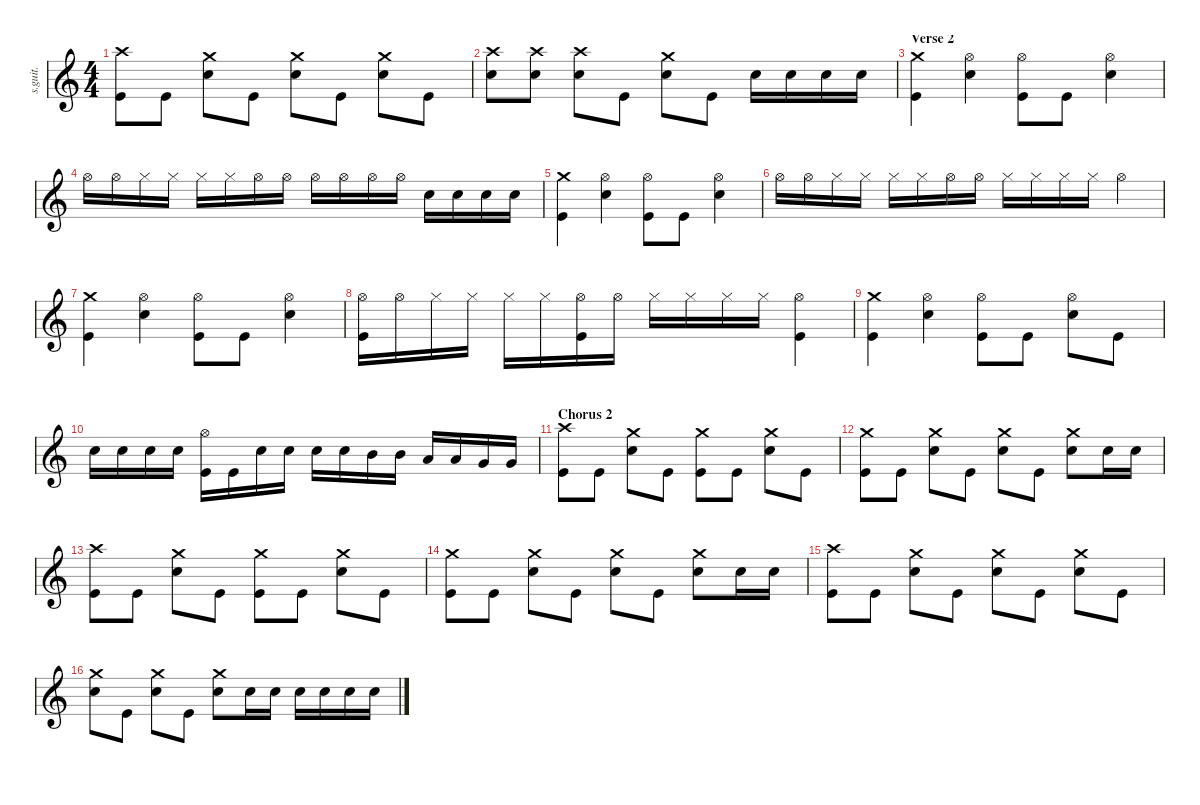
\defaultSystemsLayout 4
\hideDynamics
\bracketExtendMode nobrackets
\track ("Joey Jordison" "s.guit.") {instrument percussion}
\staff {score}
\articulation defaults
\ts (4 4)
\tempo (210 hide)
\clef g2
\ks c
("Crash high (hit)" "Kick (hit)").8{lyrics (0 "") lyrics (1 "") lyrics (2 "") lyrics (3 "") lyrics (4 "") dy ff} "Kick (hit)".8{lyrics (0 "") lyrics (1 "") lyrics (2 "") lyrics (3 "") lyrics (4 "")} ("Crash medium (hit)" "Snare (hit) 2").8{lyrics (0 "") lyrics (1 "") lyrics (2 "") lyrics (3 "") lyrics (4 "")} "Kick (hit)".8{lyrics (0 "") lyrics (1 "") lyrics (2 "") lyrics (3 "") lyrics (4 "")} ("Crash medium (hit)" "Snare (hit) 2").8{lyrics (0 "") lyrics (1 "") lyrics (2 "") lyrics (3 "") lyrics (4 "")} "Kick (hit)".8{lyrics (0 "") lyrics (1 "") lyrics (2 "") lyrics (3 "") lyrics (4 "")} ("Crash medium (hit)" "Snare (hit) 2").8{lyrics (0 "") lyrics (1 "") lyrics (2 "") lyrics (3 "") lyrics (4 "")} "Kick (hit)".8{lyrics (0 "") lyrics (1 "") lyrics (2 "") lyrics (3 "") lyrics (4 "")} |
("Crash high (hit)" "Snare (hit) 2").8{lyrics (0 "") lyrics (1 "") lyrics (2 "") lyrics (3 "") lyrics (4 "")} ("Crash high (hit)" "Snare (hit) 2").8{lyrics (0 "") lyrics (1 "") lyrics (2 "") lyrics (3 "") lyrics (4 "")} ("Crash high (hit)" "Snare (hit) 2").8{lyrics (0 "") lyrics (1 "") lyrics (2 "") lyrics (3 "") lyrics (4 "")} "Kick (hit)".8{lyrics (0 "") lyrics (1 "") lyrics (2 "") lyrics (3 "") lyrics (4 "")} ("Crash medium (hit)" "Snare (hit) 2").8{lyrics (0 "") lyrics (1 "") lyrics (2 "") lyrics (3 "") lyrics (4 "")} "Kick (hit)".8{lyrics (0 "") lyrics (1 "") lyrics (2 "") lyrics (3 "") lyrics (4 "")} "Snare (hit) 2".16{lyrics (0 "") lyrics (1 "") lyrics (2 "") lyrics (3 "") lyrics (4 "")} "Snare (hit) 2".16{lyrics (0 "") lyrics (1 "") lyrics (2 "") lyrics (3 "") lyrics (4 "")} "Snare (hit) 2".16{lyrics (0 "") lyrics (1 "") lyrics (2 "") lyrics (3 "") lyrics (4 "")} "Snare (hit) 2".16{lyrics (0 "") lyrics (1 "") lyrics (2 "") lyrics (3 "") lyrics (4 "")} |
\section ("" "Verse 2")
("Crash medium (hit)" "Kick (hit)").4{lyrics (0 "") lyrics (1 "") lyrics (2 "") lyrics (3 "") lyrics (4 "")} ("Hi-Hat (open)" "Snare (hit) 2").4{lyrics (0 "") lyrics (1 "") lyrics (2 "") lyrics (3 "") lyrics (4 "")} ("Hi-Hat (open)" "Kick (hit)").8{lyrics (0 "") lyrics (1 "") lyrics (2 "") lyrics (3 "") lyrics (4 "")} "Kick (hit)".8{lyrics (0 "") lyrics (1 "") lyrics (2 "") lyrics (3 "") lyrics (4 "")} ("Hi-Hat (open)" "Snare (hit) 2").4{lyrics (0 "") lyrics (1 "") lyrics (2 "") lyrics (3 "") lyrics (4 "")} |
"Hi-Hat (open)".16{lyrics (0 "") lyrics (1 "") lyrics (2 "") lyrics (3 "") lyrics (4 "")} "Hi-Hat (open)".16{lyrics (0 "") lyrics (1 "") lyrics (2 "") lyrics (3 "") lyrics (4 "")} "Hi-Hat (closed)".16{lyrics (0 "") lyrics (1 "") lyrics (2 "") lyrics (3 "") lyrics (4 "")} "Hi-Hat (closed)".16{lyrics (0 "") lyrics (1 "") lyrics (2 "") lyrics (3 "") lyrics (4 "")} "Hi-Hat (closed)".16{lyrics (0 "") lyrics (1 "") lyrics (2 "") lyrics (3 "") lyrics (4 "")} "Hi-Hat (closed)".16{lyrics (0 "") lyrics (1 "") lyrics (2 "") lyrics (3 "") lyrics (4 "")} "Hi-Hat (open)".16{lyrics (0 "") lyrics (1 "") lyrics (2 "") lyrics (3 "") lyrics (4 "")} "Hi-Hat (open)".16{lyrics (0 "") lyrics (1 "") lyrics (2 "") lyrics (3 "") lyrics (4 "")} "Hi-Hat (open)".16{lyrics (0 "") lyrics (1 "") lyrics (2 "") lyrics (3 "") lyrics (4 "")} "Hi-Hat (open)".16{lyrics (0 "") lyrics (1 "") lyrics (2 "") lyrics (3 "") lyrics (4 "")} "Hi-Hat (open)".16{lyrics (0 "") lyrics (1 "") lyrics (2 "") lyrics (3 "") lyrics (4 "")} "Hi-Hat (open)".16{lyrics (0 "") lyrics (1 "") lyrics (2 "") lyrics (3 "") lyrics (4 "")} "Snare (hit) 2".16{lyrics (0 "") lyrics (1 "") lyrics (2 "") lyrics (3 "") lyrics (4 "")} "Snare (hit) 2".16{lyrics (0 "") lyrics (1 "") lyrics (2 "") lyrics (3 "") lyrics (4 "")} "Snare (hit) 2".16{lyrics (0 "") lyrics (1 "") lyrics (2 "") lyrics (3 "") lyrics (4 "")} "Snare (hit) 2".16{lyrics (0 "") lyrics (1 "") lyrics (2 "") lyrics (3 "") lyrics (4 "")} |
("Crash medium (hit)" "Kick (hit)").4{lyrics (0 "") lyrics (1 "") lyrics (2 "") lyrics (3 "") lyrics (4 "")} ("Hi-Hat (open)" "Snare (hit) 2").4{lyrics (0 "") lyrics (1 "") lyrics (2 "") lyrics (3 "") lyrics (4 "")} ("Hi-Hat (open)" "Kick (hit)").8{lyrics (0 "") lyrics (1 "") lyrics (2 "") lyrics (3 "") lyrics (4 "")} "Kick (hit)".8{lyrics (0 "") lyrics (1 "") lyrics (2 "") lyrics (3 "") lyrics (4 "")} ("Hi-Hat (open)" "Snare (hit) 2").4{lyrics (0 "") lyrics (1 "") lyrics (2 "") lyrics (3 "") lyrics (4 "")} |
"Hi-Hat (open)".16{lyrics (0 "") lyrics (1 "") lyrics (2 "") lyrics (3 "") lyrics (4 "")} "Hi-Hat (open)".16{lyrics (0 "") lyrics (1 "") lyrics (2 "") lyrics (3 "") lyrics (4 "")} "Hi-Hat (closed)".16{lyrics (0 "") lyrics (1 "") lyrics (2 "") lyrics (3 "") lyrics (4 "")} "Hi-Hat (closed)".16{lyrics (0 "") lyrics (1 "") lyrics (2 "") lyrics (3 "") lyrics (4 "")} "Hi-Hat (closed)".16{lyrics (0 "") lyrics (1 "") lyrics (2 "") lyrics (3 "") lyrics (4 "")} "Hi-Hat (closed)".16{lyrics (0 "") lyrics (1 "") lyrics (2 "") lyrics (3 "") lyrics (4 "")} "Hi-Hat (open)".16{lyrics (0 "") lyrics (1 "") lyrics (2 "") lyrics (3 "") lyrics (4 "")} "Hi-Hat (open)".16{lyrics (0 "") lyrics (1 "") lyrics (2 "") lyrics (3 "") lyrics (4 "")} "Hi-Hat (closed)".16{lyrics (0 "") lyrics (1 "") lyrics (2 "") lyrics (3 "") lyrics (4 "")} "Hi-Hat (closed)".16{lyrics (0 "") lyrics (1 "") lyrics (2 "") lyrics (3 "") lyrics (4 "")} "Hi-Hat (closed)".16{lyrics (0 "") lyrics (1 "") lyrics (2 "") lyrics (3 "") lyrics (4 "")} "Hi-Hat (closed)".16{lyrics (0 "") lyrics (1 "") lyrics (2 "") lyrics (3 "") lyrics (4 "")} "Hi-Hat (open)".4{lyrics (0 "") lyrics (1 "") lyrics (2 "") lyrics (3 "") lyrics (4 "")} |
("Crash medium (hit)" "Kick (hit)").4{lyrics (0 "") lyrics (1 "") lyrics (2 "") lyrics (3 "") lyrics (4 "")} ("Hi-Hat (open)" "Snare (hit) 2").4{lyrics (0 "") lyrics (1 "") lyrics (2 "") lyrics (3 "") lyrics (4 "")} ("Hi-Hat (open)" "Kick (hit)").8{lyrics (0 "") lyrics (1 "") lyrics (2 "") lyrics (3 "") lyrics (4 "")} "Kick (hit)".8{lyrics (0 "") lyrics (1 "") lyrics (2 "") lyrics (3 "") lyrics (4 "")} ("Hi-Hat (open)" "Snare (hit) 2").4{lyrics (0 "") lyrics (1 "") lyrics (2 "") lyrics (3 "") lyrics (4 "")} |
("Hi-Hat (open)" "Kick (hit)").16{lyrics (0 "") lyrics (1 "") lyrics (2 "") lyrics (3 "") lyrics (4 "")} "Hi-Hat (open)".16{lyrics (0 "") lyrics (1 "") lyrics (2 "") lyrics (3 "") lyrics (4 "")} "Hi-Hat (closed)".16{lyrics (0 "") lyrics (1 "") lyrics (2 "") lyrics (3 "") lyrics (4 "")} "Hi-Hat (closed)".16{lyrics (0 "") lyrics (1 "") lyrics (2 "") lyrics (3 "") lyrics (4 "")} "Hi-Hat (closed)".16{lyrics (0 "") lyrics (1 "") lyrics (2 "") lyrics (3 "") lyrics (4 "")} "Hi-Hat (closed)".16{lyrics (0 "") lyrics (1 "") lyrics (2 "") lyrics (3 "") lyrics (4 "")} ("Hi-Hat (open)" "Kick (hit)").16{lyrics (0 "") lyrics (1 "") lyrics (2 "") lyrics (3 "") lyrics (4 "")} "Hi-Hat (open)".16{lyrics (0 "") lyrics (1 "") lyrics (2 "") lyrics (3 "") lyrics (4 "")} "Hi-Hat (closed)".16{lyrics (0 "") lyrics (1 "") lyrics (2 "") lyrics (3 "") lyrics (4 "")} "Hi-Hat (closed)".16{lyrics (0 "") lyrics (1 "") lyrics (2 "") lyrics (3 "") lyrics (4 "")} "Hi-Hat (closed)".16{lyrics (0 "") lyrics (1 "") lyrics (2 "") lyrics (3 "") lyrics (4 "")} "Hi-Hat (closed)".16{lyrics (0 "") lyrics (1 "") lyrics (2 "") lyrics (3 "") lyrics (4 "")} ("Hi-Hat (open)" "Kick (hit)").4{lyrics (0 "") lyrics (1 "") lyrics (2 "") lyrics (3 "") lyrics (4 "")} |
("Crash medium (hit)" "Kick (hit)").4{lyrics (0 "") lyrics (1 "") lyrics (2 "") lyrics (3 "") lyrics (4 "")} ("Hi-Hat (open)" "Snare (hit) 2").4{lyrics (0 "") lyrics (1 "") lyrics (2 "") lyrics (3 "") lyrics (4 "")} ("Hi-Hat (open)" "Kick (hit)").8{lyrics (0 "") lyrics (1 "") lyrics (2 "") lyrics (3 "") lyrics (4 "")} "Kick (hit)".8{lyrics (0 "") lyrics (1 "") lyrics (2 "") lyrics (3 "") lyrics (4 "")} ("Hi-Hat (open)" "Snare (hit) 2").8{lyrics (0 "") lyrics (1 "") lyrics (2 "") lyrics (3 "") lyrics (4 "")} "Kick (hit)".8{lyrics (0 "") lyrics (1 "") lyrics (2 "") lyrics (3 "") lyrics (4 "")} |
"Snare (hit) 2".16{lyrics (0 "") lyrics (1 "") lyrics (2 "") lyrics (3 "") lyrics (4 "")} "Snare (hit) 2".16{lyrics (0 "") lyrics (1 "") lyrics (2 "") lyrics (3 "") lyrics (4 "")} "Snare (hit) 2".16{lyrics (0 "") lyrics (1 "") lyrics (2 "") lyrics (3 "") lyrics (4 "")} "Snare (hit) 2".16{lyrics (0 "") lyrics (1 "") lyrics (2 "") lyrics (3 "") lyrics (4 "")} ("Kick (hit)" "Hi-Hat (open)").16{lyrics (0 "") lyrics (1 "") lyrics (2 "") lyrics (3 "") lyrics (4 "")} "Kick (hit)".16{lyrics (0 "") lyrics (1 "") lyrics (2 "") lyrics (3 "") lyrics (4 "")} "Snare (hit) 2".16{lyrics (0 "") lyrics (1 "") lyrics (2 "") lyrics (3 "") lyrics (4 "")} "Snare (hit) 2".16{lyrics (0 "") lyrics (1 "") lyrics (2 "") lyrics (3 "") lyrics (4 "")} "Snare (hit) 2".16{lyrics (0 "") lyrics (1 "") lyrics (2 "") lyrics (3 "") lyrics (4 "")} "Snare (hit) 2".16{lyrics (0 "") lyrics (1 "") lyrics (2 "") lyrics (3 "") lyrics (4 "")} "Mid Tom (hit)".16{lyrics (0 "") lyrics (1 "") lyrics (2 "") lyrics (3 "") lyrics (4 "")} "Mid Tom (hit)".16{lyrics (0 "") lyrics (1 "") lyrics (2 "") lyrics (3 "") lyrics (4 "")} "Low Tom (hit)".16{lyrics (0 "") lyrics (1 "") lyrics (2 "") lyrics (3 "") lyrics (4 "")} "Low Tom (hit)".16{lyrics (0 "") lyrics (1 "") lyrics (2 "") lyrics (3 "") lyrics (4 "")} "Very Low Tom (hit)".16{lyrics (0 "") lyrics (1 "") lyrics (2 "") lyrics (3 "") lyrics (4 "")} "Very Low Tom (hit)".16{lyrics (0 "") lyrics (1 "") lyrics (2 "") lyrics (3 "") lyrics (4 "")} |
\section ("" "Chorus 2")
("Crash high (hit)" "Kick (hit)").8{lyrics (0 "") lyrics (1 "") lyrics (2 "") lyrics (3 "") lyrics (4 "")} "Kick (hit)".8{lyrics (0 "") lyrics (1 "") lyrics (2 "") lyrics (3 "") lyrics (4 "")} ("Crash medium (hit)" "Snare (hit) 2").8{lyrics (0 "") lyrics (1 "") lyrics (2 "") lyrics (3 "") lyrics (4 "")} "Kick (hit)".8{lyrics (0 "") lyrics (1 "") lyrics (2 "") lyrics (3 "") lyrics (4 "")} ("Crash medium (hit)" "Kick (hit)").8{lyrics (0 "") lyrics (1 "") lyrics (2 "") lyrics (3 "") lyrics (4 "")} "Kick (hit)".8{lyrics (0 "") lyrics (1 "") lyrics (2 "") lyrics (3 "") lyrics (4 "")} ("Crash medium (hit)" "Snare (hit) 2").8{lyrics (0 "") lyrics (1 "") lyrics (2 "") lyrics (3 "") lyrics (4 "")} "Kick (hit)".8{lyrics (0 "") lyrics (1 "") lyrics (2 "") lyrics (3 "") lyrics (4 "")} |
("Crash medium (hit)" "Kick (hit)").8{lyrics (0 "") lyrics (1 "") lyrics (2 "") lyrics (3 "") lyrics (4 "")} "Kick (hit)".8{lyrics (0 "") lyrics (1 "") lyrics (2 "") lyrics (3 "") lyrics (4 "")} ("Crash medium (hit)" "Snare (hit) 2").8{lyrics (0 "") lyrics (1 "") lyrics (2 "") lyrics (3 "") lyrics (4 "")} "Kick (hit)".8{lyrics (0 "") lyrics (1 "") lyrics (2 "") lyrics (3 "") lyrics (4 "")} ("Crash medium (hit)" "Snare (hit) 2").8{lyrics (0 "") lyrics (1 "") lyrics (2 "") lyrics (3 "") lyrics (4 "")} "Kick (hit)".8{lyrics (0 "") lyrics (1 "") lyrics (2 "") lyrics (3 "") lyrics (4 "")} ("Crash medium (hit)" "Snare (hit) 2").8{lyrics (0 "") lyrics (1 "") lyrics (2 "") lyrics (3 "") lyrics (4 "")} "Snare (hit) 2".16{lyrics (0 "") lyrics (1 "") lyrics (2 "") lyrics (3 "") lyrics (4 "")} "Snare (hit) 2".16{lyrics (0 "") lyrics (1 "") lyrics (2 "") lyrics (3 "") lyrics (4 "")} |
("Crash high (hit)" "Kick (hit)").8{lyrics (0 "") lyrics (1 "") lyrics (2 "") lyrics (3 "") lyrics (4 "")} "Kick (hit)".8{lyrics (0 "") lyrics (1 "") lyrics (2 "") lyrics (3 "") lyrics (4 "")} ("Crash medium (hit)" "Snare (hit) 2").8{lyrics (0 "") lyrics (1 "") lyrics (2 "") lyrics (3 "") lyrics (4 "")} "Kick (hit)".8{lyrics (0 "") lyrics (1 "") lyrics (2 "") lyrics (3 "") lyrics (4 "")} ("Crash medium (hit)" "Kick (hit)").8{lyrics (0 "") lyrics (1 "") lyrics (2 "") lyrics (3 "") lyrics (4 "")} "Kick (hit)".8{lyrics (0 "") lyrics (1 "") lyrics (2 "") lyrics (3 "") lyrics (4 "")} ("Crash medium (hit)" "Snare (hit) 2").8{lyrics (0 "") lyrics (1 "") lyrics (2 "") lyrics (3 "") lyrics (4 "")} "Kick (hit)".8{lyrics (0 "") lyrics (1 "") lyrics (2 "") lyrics (3 "") lyrics (4 "")} |
("Crash medium (hit)" "Kick (hit)").8{lyrics (0 "") lyrics (1 "") lyrics (2 "") lyrics (3 "") lyrics (4 "")} "Kick (hit)".8{lyrics (0 "") lyrics (1 "") lyrics (2 "") lyrics (3 "") lyrics (4 "")} ("Crash medium (hit)" "Snare (hit) 2").8{lyrics (0 "") lyrics (1 "") lyrics (2 "") lyrics (3 "") lyrics (4 "")} "Kick (hit)".8{lyrics (0 "") lyrics (1 "") lyrics (2 "") lyrics (3 "") lyrics (4 "")} ("Crash medium (hit)" "Snare (hit) 2").8{lyrics (0 "") lyrics (1 "") lyrics (2 "") lyrics (3 "") lyrics (4 "")} "Kick (hit)".8{lyrics (0 "") lyrics (1 "") lyrics (2 "") lyrics (3 "") lyrics (4 "")} ("Crash medium (hit)" "Snare (hit) 2").8{lyrics (0 "") lyrics (1 "") lyrics (2 "") lyrics (3 "") lyrics (4 "")} "Snare (hit) 2".16{lyrics (0 "") lyrics (1 "") lyrics (2 "") lyrics (3 "") lyrics (4 "")} "Snare (hit) 2".16{lyrics (0 "") lyrics (1 "") lyrics (2 "") lyrics (3 "") lyrics (4 "")} |
("Crash high (hit)" "Kick (hit)").8{lyrics (0 "") lyrics (1 "") lyrics (2 "") lyrics (3 "") lyrics (4 "")} "Kick (hit)".8{lyrics (0 "") lyrics (1 "") lyrics (2 "") lyrics (3 "") lyrics (4 "")} ("Crash medium (hit)" "Snare (hit) 2").8{lyrics (0 "") lyrics (1 "") lyrics (2 "") lyrics (3 "") lyrics (4 "")} "Kick (hit)".8{lyrics (0 "") lyrics (1 "") lyrics (2 "") lyrics (3 "") lyrics (4 "")} ("Crash medium (hit)" "Snare (hit) 2").8{lyrics (0 "") lyrics (1 "") lyrics (2 "") lyrics (3 "") lyrics (4 "")} "Kick (hit)".8{lyrics (0 "") lyrics (1 "") lyrics (2 "") lyrics (3 "") lyrics (4 "")} ("Crash medium (hit)" "Snare (hit) 2").8{lyrics (0 "") lyrics (1 "") lyrics (2 "") lyrics (3 "") lyrics (4 "")} "Kick (hit)".8{lyrics (0 "") lyrics (1 "") lyrics (2 "") lyrics (3 "") lyrics (4 "")} |
("Crash medium (hit)" "Snare (hit) 2").8{lyrics (0 "") lyrics (1 "") lyrics (2 "") lyrics (3 "") lyrics (4 "")} "Kick (hit)".8{lyrics (0 "") lyrics (1 "") lyrics (2 "") lyrics (3 "") lyrics (4 "")} ("Crash medium (hit)" "Snare (hit) 2").8{lyrics (0 "") lyrics (1 "") lyrics (2 "") lyrics (3 "") lyrics (4 "")} "Kick (hit)".8{lyrics (0 "") lyrics (1 "") lyrics (2 "") lyrics (3 "") lyrics (4 "")} ("Crash medium (hit)" "Snare (hit) 2").8{lyrics (0 "") lyrics (1 "") lyrics (2 "") lyrics (3 "") lyrics (4 "")} "Snare (hit) 2".16{lyrics (0 "") lyrics (1 "") lyrics (2 "") lyrics (3 "") lyrics (4 "")} "Snare (hit) 2".16{lyrics (0 "") lyrics (1 "") lyrics (2 "") lyrics (3 "") lyrics (4 "")} "Snare (hit) 2".16{lyrics (0 "") lyrics (1 "") lyrics (2 "") lyrics (3 "") lyrics (4 "")} "Snare (hit) 2".16{lyrics (0 "") lyrics (1 "") lyrics (2 "") lyrics (3 "") lyrics (4 "")} "Snare (hit) 2".16{lyrics (0 "") lyrics (1 "") lyrics (2 "") lyrics (3 "") lyrics (4 "")} "Snare (hit) 2".16{lyrics (0 "") lyrics (1 "") lyrics (2 "") lyrics (3 "") lyrics (4 "")}
